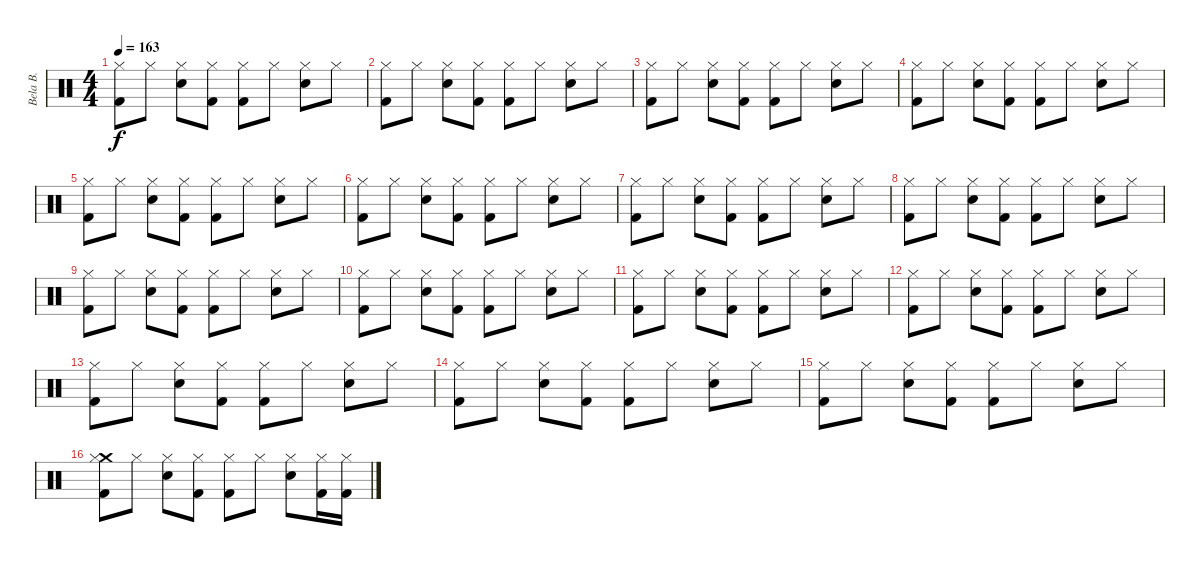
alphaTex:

\track ("Bela B." "Bela B.") {instrument percussion}
\staff {score}
\articulation defaults
\ts (4 4)
\tempo 163
\clef neutral
\ks c
("Kick (hit) 2" "Hi-Hat (closed)").8{dy f} "Hi-Hat (closed)".8 ("Hi-Hat (closed)" "Snare (hit) 2").8 ("Hi-Hat (closed)" "Kick (hit) 2").8 ("Kick (hit) 2" "Hi-Hat (closed)").8 "Hi-Hat (closed)".8 ("Hi-Hat (closed)" "Snare (hit) 2").8 "Hi-Hat (closed)".8 |
("Kick (hit) 2" "Hi-Hat (closed)").8 "Hi-Hat (closed)".8 ("Hi-Hat (closed)" "Snare (hit) 2").8 ("Kick (hit) 2" "Hi-Hat (closed)").8 ("Hi-Hat (closed)" "Kick (hit) 2").8 "Hi-Hat (closed)".8 ("Hi-Hat (closed)" "Snare (hit) 2").8 "Hi-Hat (closed)".8 |
("Kick (hit) 2" "Hi-Hat (closed)").8 "Hi-Hat (closed)".8 ("Snare (hit) 2" "Hi-Hat (closed)").8 ("Hi-Hat (closed)" "Kick (hit) 2").8 ("Hi-Hat (closed)" "Kick (hit) 2").8 "Hi-Hat (closed)".8 ("Snare (hit) 2" "Hi-Hat (closed)").8 "Hi-Hat (closed)".8 |
("Kick (hit) 2" "Hi-Hat (closed)").8 "Hi-Hat (closed)".8 ("Snare (hit) 2" "Hi-Hat (closed)").8 ("Kick (hit) 2" "Hi-Hat (closed)").8 ("Kick (hit) 2" "Hi-Hat (closed)").8 "Hi-Hat (closed)".8 ("Snare (hit) 2" "Hi-Hat (closed)").8 "Hi-Hat (closed)".8 |
("Hi-Hat (closed)" "Kick (hit) 2").8 "Hi-Hat (closed)".8 ("Hi-Hat (closed)" "Snare (hit) 2").8 ("Kick (hit) 2" "Hi-Hat (closed)").8 ("Hi-Hat (closed)" "Kick (hit) 2").8 "Hi-Hat (closed)".8 ("Snare (hit) 2" "Hi-Hat (closed)").8 "Hi-Hat (closed)".8 |
("Kick (hit) 2" "Hi-Hat (closed)").8 "Hi-Hat (closed)".8 ("Hi-Hat (closed)" "Snare (hit) 2").8 ("Hi-Hat (closed)" "Kick (hit) 2").8 ("Kick (hit) 2" "Hi-Hat (closed)").8 "Hi-Hat (closed)".8 ("Snare (hit) 2" "Hi-Hat (closed)").8 "Hi-Hat (closed)".8 |
("Kick (hit) 2" "Hi-Hat (closed)").8 "Hi-Hat (closed)".8 ("Hi-Hat (closed)" "Snare (hit) 2").8 ("Hi-Hat (closed)" "Kick (hit) 2").8 ("Kick (hit) 2" "Hi-Hat (closed)").8 "Hi-Hat (closed)".8 ("Snare (hit) 2" "Hi-Hat (closed)").8 "Hi-Hat (closed)".8 |
("Kick (hit) 2" "Hi-Hat (closed)").8 "Hi-Hat (closed)".8 ("Hi-Hat (closed)" "Snare (hit) 2").8 ("Kick (hit) 2" "Hi-Hat (closed)").8 ("Hi-Hat (closed)" "Kick (hit) 2").8 "Hi-Hat (closed)".8 ("Snare (hit) 2" "Hi-Hat (closed)").8 "Hi-Hat (closed)".8 |
("Kick (hit) 2" "Hi-Hat (closed)").8 "Hi-Hat (closed)".8 ("Hi-Hat (closed)" "Snare (hit) 2").8 ("Hi-Hat (closed)" "Kick (hit) 2").8 ("Kick (hit) 2" "Hi-Hat (closed)").8 "Hi-Hat (closed)".8 ("Hi-Hat (closed)" "Snare (hit) 2").8 "Hi-Hat (closed)".8 |
("Kick (hit) 2" "Hi-Hat (closed)").8 "Hi-Hat (closed)".8 ("Hi-Hat (closed)" "Snare (hit) 2").8 ("Kick (hit) 2" "Hi-Hat (closed)").8 ("Hi-Hat (closed)" "Kick (hit) 2").8 "Hi-Hat (closed)".8 ("Hi-Hat (closed)" "Snare (hit) 2").8 "Hi-Hat (closed)".8 |
("Kick (hit) 2" "Hi-Hat (closed)").8 "Hi-Hat (closed)".8 ("Snare (hit) 2" "Hi-Hat (closed)").8 ("Hi-Hat (closed)" "Kick (hit) 2").8 ("Hi-Hat (closed)" "Kick (hit) 2").8 "Hi-Hat (closed)".8 ("Snare (hit) 2" "Hi-Hat (closed)").8 "Hi-Hat (closed)".8 |
("Kick (hit) 2" "Hi-Hat (closed)").8 "Hi-Hat (closed)".8 ("Snare (hit) 2" "Hi-Hat (closed)").8 ("Kick (hit) 2" "Hi-Hat (closed)").8 ("Kick (hit) 2" "Hi-Hat (closed)").8 "Hi-Hat (closed)".8 ("Snare (hit) 2" "Hi-Hat (closed)").8 "Hi-Hat (closed)".8 |
("Hi-Hat (closed)" "Kick (hit) 2").8 "Hi-Hat (closed)".8 ("Hi-Hat (closed)" "Snare (hit) 2").8 ("Kick (hit) 2" "Hi-Hat (closed)").8 ("Hi-Hat (closed)" "Kick (hit) 2").8 "Hi-Hat (closed)".8 ("Snare (hit) 2" "Hi-Hat (closed)").8 "Hi-Hat (closed)".8 |
("Kick (hit) 2" "Hi-Hat (closed)").8 "Hi-Hat (closed)".8 ("Hi-Hat (closed)" "Snare (hit) 2").8 ("Hi-Hat (closed)" "Kick (hit) 2").8 ("Kick (hit) 2" "Hi-Hat (closed)").8 "Hi-Hat (closed)".8 ("Snare (hit) 2" "Hi-Hat (closed)").8 "Hi-Hat (closed)".8 |
("Kick (hit) 2" "Hi-Hat (closed)").8 "Hi-Hat (closed)".8 ("Hi-Hat (closed)" "Snare (hit) 2").8 ("Hi-Hat (closed)" "Kick (hit) 2").8 ("Kick (hit) 2" "Hi-Hat (closed)").8 "Hi-Hat (closed)".8 ("Snare (hit) 2" "Hi-Hat (closed)").8 "Hi-Hat (closed)".8 |
("Crash medium (hit)" "Kick (hit) 2" "Hi-Hat (closed)").8 "Hi-Hat (closed)".8 ("Snare (hit) 2" "Hi-Hat (closed)").8 ("Hi-Hat (closed)" "Kick (hit) 2").8 ("Hi-Hat (closed)" "Kick (hit) 2").8 "Hi-Hat (closed)".8 ("Snare (hit) 2" "Hi-Hat (closed)").8 ("Kick (hit) 2" "Hi-Hat (closed)").16 ("Hi-Hat (closed)" "Kick (hit) 2").16
